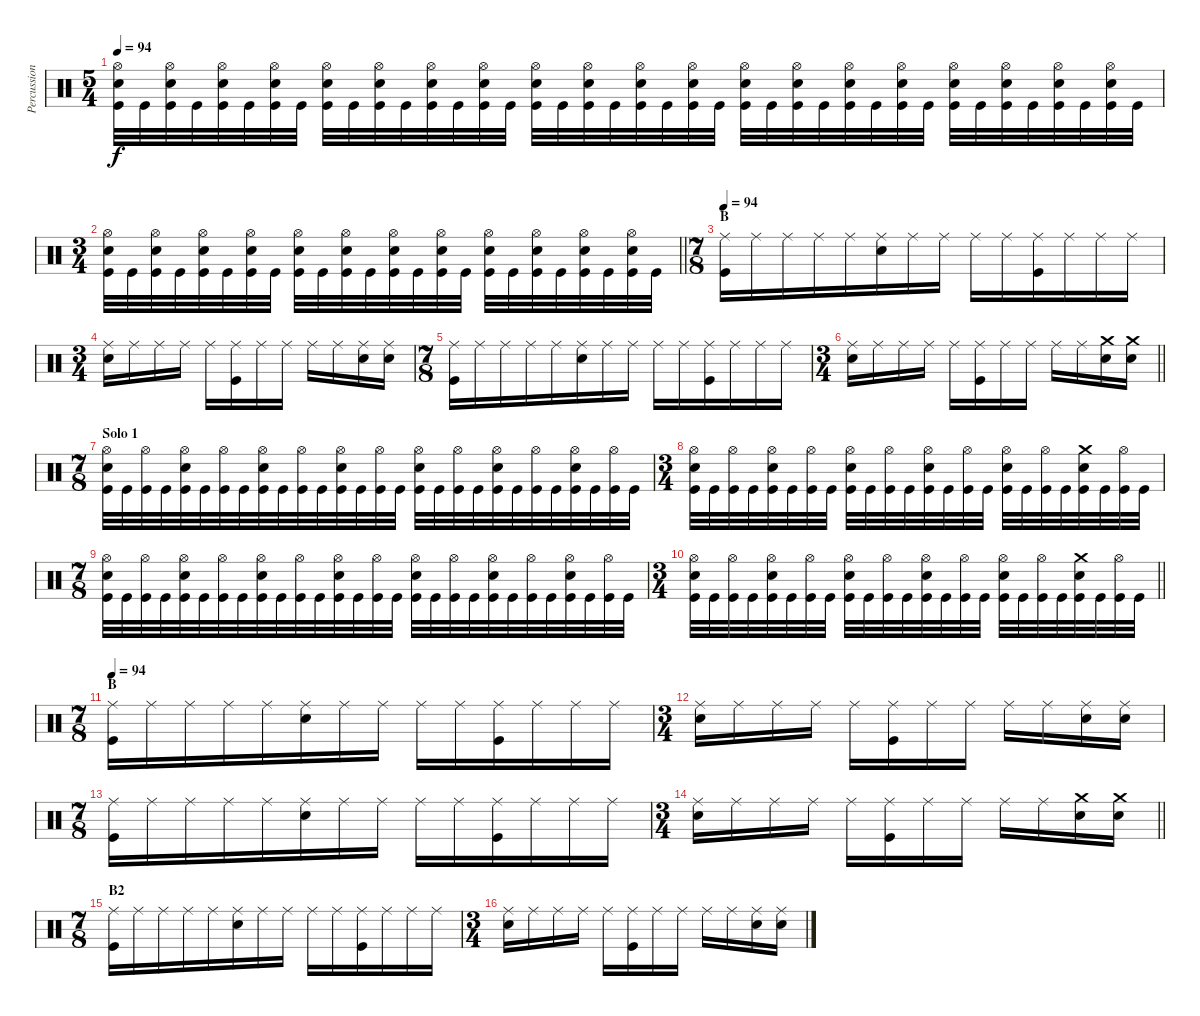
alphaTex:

\track ("Percussion" "Percussion") {instrument percussion}
\staff {score}
\articulation defaults
\ts (5 4)
\tempo 94
\clef neutral
\ks c
("Kick (hit)" "Snare (hit) 2" "Hi-Hat (open)").32{dy f} "Kick (hit)".32 ("Kick (hit)" "Snare (hit) 2" "Hi-Hat (open)").32 "Kick (hit)".32 ("Kick (hit)" "Snare (hit) 2" "Hi-Hat (open)").32 "Kick (hit)".32 ("Kick (hit)" "Snare (hit) 2" "Hi-Hat (open)").32 "Kick (hit)".32 ("Kick (hit)" "Snare (hit) 2" "Hi-Hat (open)").32 "Kick (hit)".32 ("Kick (hit)" "Snare (hit) 2" "Hi-Hat (open)").32 "Kick (hit)".32 ("Kick (hit)" "Snare (hit) 2" "Hi-Hat (open)").32 "Kick (hit)".32 ("Kick (hit)" "Snare (hit) 2" "Hi-Hat (open)").32 "Kick (hit)".32 ("Kick (hit)" "Snare (hit) 2" "Hi-Hat (open)").32 "Kick (hit)".32 ("Kick (hit)" "Snare (hit) 2" "Hi-Hat (open)").32 "Kick (hit)".32 ("Kick (hit)" "Snare (hit) 2" "Hi-Hat (open)").32 "Kick (hit)".32 ("Kick (hit)" "Snare (hit) 2" "Hi-Hat (open)").32 "Kick (hit)".32 ("Kick (hit)" "Snare (hit) 2" "Hi-Hat (open)").32 "Kick (hit)".32 ("Kick (hit)" "Snare (hit) 2" "Hi-Hat (open)").32 "Kick (hit)".32 ("Kick (hit)" "Snare (hit) 2" "Hi-Hat (open)").32 "Kick (hit)".32 ("Kick (hit)" "Snare (hit) 2" "Hi-Hat (open)").32 "Kick (hit)".32 ("Kick (hit)" "Snare (hit) 2" "Hi-Hat (open)").32 "Kick (hit)".32 ("Kick (hit)" "Snare (hit) 2" "Hi-Hat (open)").32 "Kick (hit)".32 ("Kick (hit)" "Snare (hit) 2" "Hi-Hat (open)").32 "Kick (hit)".32 ("Kick (hit)" "Snare (hit) 2" "Hi-Hat (open)").32 "Kick (hit)".32 |
\ts (3 4)
\barLineRight lightlight
("Kick (hit)" "Snare (hit) 2" "Hi-Hat (open)").32 "Kick (hit)".32 ("Kick (hit)" "Snare (hit) 2" "Hi-Hat (open)").32 "Kick (hit)".32 ("Kick (hit)" "Snare (hit) 2" "Hi-Hat (open)").32 "Kick (hit)".32 ("Kick (hit)" "Snare (hit) 2" "Hi-Hat (open)").32 "Kick (hit)".32 ("Kick (hit)" "Snare (hit) 2" "Hi-Hat (open)").32 "Kick (hit)".32 ("Kick (hit)" "Snare (hit) 2" "Hi-Hat (open)").32 "Kick (hit)".32 ("Kick (hit)" "Snare (hit) 2" "Hi-Hat (open)").32 "Kick (hit)".32 ("Kick (hit)" "Snare (hit) 2" "Hi-Hat (open)").32 "Kick (hit)".32 ("Kick (hit)" "Snare (hit) 2" "Hi-Hat (open)").32 "Kick (hit)".32 ("Kick (hit)" "Snare (hit) 2" "Hi-Hat (open)").32 "Kick (hit)".32 ("Kick (hit)" "Snare (hit) 2" "Hi-Hat (open)").32 "Kick (hit)".32 ("Kick (hit)" "Snare (hit) 2" "Hi-Hat (open)").32 "Kick (hit)".32 |
\ts (7 8)
\section ("" "B")
\tempo 94
("Kick (hit)" "Ride (middle)").16 "Ride (middle)".16 "Ride (middle)".16 "Ride (middle)".16 "Ride (middle)".16 ("Snare (hit) 2" "Ride (middle)").16 "Ride (middle)".16 "Ride (middle)".16 "Ride (middle)".16 "Ride (middle)".16 ("Kick (hit)" "Ride (middle)").16 "Ride (middle)".16 "Ride (middle)".16 "Ride (middle)".16 |
\ts (3 4)
("Snare (hit) 2" "Ride (middle)").16 "Ride (middle)".16 "Ride (middle)".16 "Ride (middle)".16 "Ride (middle)".16 ("Kick (hit)" "Ride (middle)").16 "Ride (middle)".16 "Ride (middle)".16 "Ride (middle)".16 "Ride (middle)".16 ("Snare (hit) 2" "Ride (middle)").16 ("Snare (hit) 2" "Ride (middle)").16 |
\ts (7 8)
("Kick (hit)" "Ride (middle)").16 "Ride (middle)".16 "Ride (middle)".16 "Ride (middle)".16 "Ride (middle)".16 ("Snare (hit) 2" "Ride (middle)").16 "Ride (middle)".16 "Ride (middle)".16 "Ride (middle)".16 "Ride (middle)".16 ("Kick (hit)" "Ride (middle)").16 "Ride (middle)".16 "Ride (middle)".16 "Ride (middle)".16 |
\ts (3 4)
\barLineRight lightlight
("Snare (hit) 2" "Ride (middle)").16 "Ride (middle)".16 "Ride (middle)".16 "Ride (middle)".16 "Ride (middle)".16 ("Kick (hit)" "Ride (middle)").16 "Ride (middle)".16 "Ride (middle)".16 "Ride (middle)".16 "Ride (middle)".16 ("Snare (hit) 2" "Crash medium (hit)").16 ("Snare (hit) 2" "Crash medium (hit)").16 |
\ts (7 8)
\section ("" "Solo 1")
("Kick (hit)" "Snare (hit) 2" "Hi-Hat (open)").32 "Kick (hit)".32 ("Kick (hit)" "Hi-Hat (open)").32 "Kick (hit)".32 ("Kick (hit)" "Snare (hit) 2" "Hi-Hat (open)").32 "Kick (hit)".32 ("Kick (hit)" "Hi-Hat (open)").32 "Kick (hit)".32 ("Kick (hit)" "Snare (hit) 2" "Hi-Hat (open)").32 "Kick (hit)".32 ("Kick (hit)" "Hi-Hat (open)").32 "Kick (hit)".32 ("Kick (hit)" "Snare (hit) 2" "Hi-Hat (open)").32 "Kick (hit)".32 ("Kick (hit)" "Hi-Hat (open)").32 "Kick (hit)".32 ("Kick (hit)" "Snare (hit) 2" "Hi-Hat (open)").32 "Kick (hit)".32 ("Kick (hit)" "Hi-Hat (open)").32 "Kick (hit)".32 ("Kick (hit)" "Snare (hit) 2" "Hi-Hat (open)").32 "Kick (hit)".32 ("Kick (hit)" "Hi-Hat (open)").32 "Kick (hit)".32 ("Kick (hit)" "Snare (hit) 2" "Hi-Hat (open)").32 "Kick (hit)".32 ("Kick (hit)" "Hi-Hat (open)").32 "Kick (hit)".32 |
\ts (3 4)
("Kick (hit)" "Snare (hit) 2" "Hi-Hat (open)").32 "Kick (hit)".32 ("Kick (hit)" "Hi-Hat (open)").32 "Kick (hit)".32 ("Kick (hit)" "Snare (hit) 2" "Hi-Hat (open)").32 "Kick (hit)".32 ("Kick (hit)" "Hi-Hat (open)").32 "Kick (hit)".32 ("Kick (hit)" "Snare (hit) 2" "Hi-Hat (open)").32 "Kick (hit)".32 ("Kick (hit)" "Hi-Hat (open)").32 "Kick (hit)".32 ("Kick (hit)" "Snare (hit) 2" "Hi-Hat (open)").32 "Kick (hit)".32 ("Kick (hit)" "Hi-Hat (open)").32 "Kick (hit)".32 ("Kick (hit)" "Snare (hit) 2" "Hi-Hat (open)").32 "Kick (hit)".32 ("Kick (hit)" "Hi-Hat (open)").32 "Kick (hit)".32 ("Kick (hit)" "Snare (hit) 2" "Crash medium (hit)").32 "Kick (hit)".32 ("Kick (hit)" "Hi-Hat (open)").32 "Kick (hit)".32 |
\ts (7 8)
("Kick (hit)" "Snare (hit) 2" "Hi-Hat (open)").32 "Kick (hit)".32 ("Kick (hit)" "Hi-Hat (open)").32 "Kick (hit)".32 ("Kick (hit)" "Snare (hit) 2" "Hi-Hat (open)").32 "Kick (hit)".32 ("Kick (hit)" "Hi-Hat (open)").32 "Kick (hit)".32 ("Kick (hit)" "Snare (hit) 2" "Hi-Hat (open)").32 "Kick (hit)".32 ("Kick (hit)" "Hi-Hat (open)").32 "Kick (hit)".32 ("Kick (hit)" "Snare (hit) 2" "Hi-Hat (open)").32 "Kick (hit)".32 ("Kick (hit)" "Hi-Hat (open)").32 "Kick (hit)".32 ("Kick (hit)" "Snare (hit) 2" "Hi-Hat (open)").32 "Kick (hit)".32 ("Kick (hit)" "Hi-Hat (open)").32 "Kick (hit)".32 ("Kick (hit)" "Snare (hit) 2" "Hi-Hat (open)").32 "Kick (hit)".32 ("Kick (hit)" "Hi-Hat (open)").32 "Kick (hit)".32 ("Kick (hit)" "Snare (hit) 2" "Hi-Hat (open)").32 "Kick (hit)".32 ("Kick (hit)" "Hi-Hat (open)").32 "Kick (hit)".32 |
\ts (3 4)
\barLineRight lightlight
("Kick (hit)" "Snare (hit) 2" "Hi-Hat (open)").32 "Kick (hit)".32 ("Kick (hit)" "Hi-Hat (open)").32 "Kick (hit)".32 ("Kick (hit)" "Snare (hit) 2" "Hi-Hat (open)").32 "Kick (hit)".32 ("Kick (hit)" "Hi-Hat (open)").32 "Kick (hit)".32 ("Kick (hit)" "Snare (hit) 2" "Hi-Hat (open)").32 "Kick (hit)".32 ("Kick (hit)" "Hi-Hat (open)").32 "Kick (hit)".32 ("Kick (hit)" "Snare (hit) 2" "Hi-Hat (open)").32 "Kick (hit)".32 ("Kick (hit)" "Hi-Hat (open)").32 "Kick (hit)".32 ("Kick (hit)" "Snare (hit) 2" "Hi-Hat (open)").32 "Kick (hit)".32 ("Kick (hit)" "Hi-Hat (open)").32 "Kick (hit)".32 ("Kick (hit)" "Snare (hit) 2" "Crash medium (hit)").32 "Kick (hit)".32 ("Kick (hit)" "Hi-Hat (open)").32 "Kick (hit)".32 |
\ts (7 8)
\section ("" "B")
\tempo 94
("Kick (hit)" "Ride (middle)").16 "Ride (middle)".16 "Ride (middle)".16 "Ride (middle)".16 "Ride (middle)".16 ("Snare (hit) 2" "Ride (middle)").16 "Ride (middle)".16 "Ride (middle)".16 "Ride (middle)".16 "Ride (middle)".16 ("Kick (hit)" "Ride (middle)").16 "Ride (middle)".16 "Ride (middle)".16 "Ride (middle)".16 |
\ts (3 4)
("Snare (hit) 2" "Ride (middle)").16 "Ride (middle)".16 "Ride (middle)".16 "Ride (middle)".16 "Ride (middle)".16 ("Kick (hit)" "Ride (middle)").16 "Ride (middle)".16 "Ride (middle)".16 "Ride (middle)".16 "Ride (middle)".16 ("Snare (hit) 2" "Ride (middle)").16 ("Snare (hit) 2" "Ride (middle)").16 |
\ts (7 8)
("Kick (hit)" "Ride (middle)").16 "Ride (middle)".16 "Ride (middle)".16 "Ride (middle)".16 "Ride (middle)".16 ("Snare (hit) 2" "Ride (middle)").16 "Ride (middle)".16 "Ride (middle)".16 "Ride (middle)".16 "Ride (middle)".16 ("Kick (hit)" "Ride (middle)").16 "Ride (middle)".16 "Ride (middle)".16 "Ride (middle)".16 |
\ts (3 4)
\barLineRight lightlight
("Snare (hit) 2" "Ride (middle)").16 "Ride (middle)".16 "Ride (middle)".16 "Ride (middle)".16 "Ride (middle)".16 ("Kick (hit)" "Ride (middle)").16 "Ride (middle)".16 "Ride (middle)".16 "Ride (middle)".16 "Ride (middle)".16 ("Snare (hit) 2" "Crash medium (hit)").16 ("Snare (hit) 2" "Crash medium (hit)").16 |
\ts (7 8)
\section ("" "B2")
("Kick (hit)" "Ride (middle)").16 "Ride (middle)".16 "Ride (middle)".16 "Ride (middle)".16 "Ride (middle)".16 ("Snare (hit) 2" "Ride (middle)").16 "Ride (middle)".16 "Ride (middle)".16 "Ride (middle)".16 "Ride (middle)".16 ("Kick (hit)" "Ride (middle)").16 "Ride (middle)".16 "Ride (middle)".16 "Ride (middle)".16 |
\ts (3 4)
("Snare (hit) 2" "Ride (middle)").16 "Ride (middle)".16 "Ride (middle)".16 "Ride (middle)".16 "Ride (middle)".16 ("Kick (hit)" "Ride (middle)").16 "Ride (middle)".16 "Ride (middle)".16 "Ride (middle)".16 "Ride (middle)".16 ("Snare (hit) 2" "Ride (middle)").16 ("Snare (hit) 2" "Ride (middle)").16
